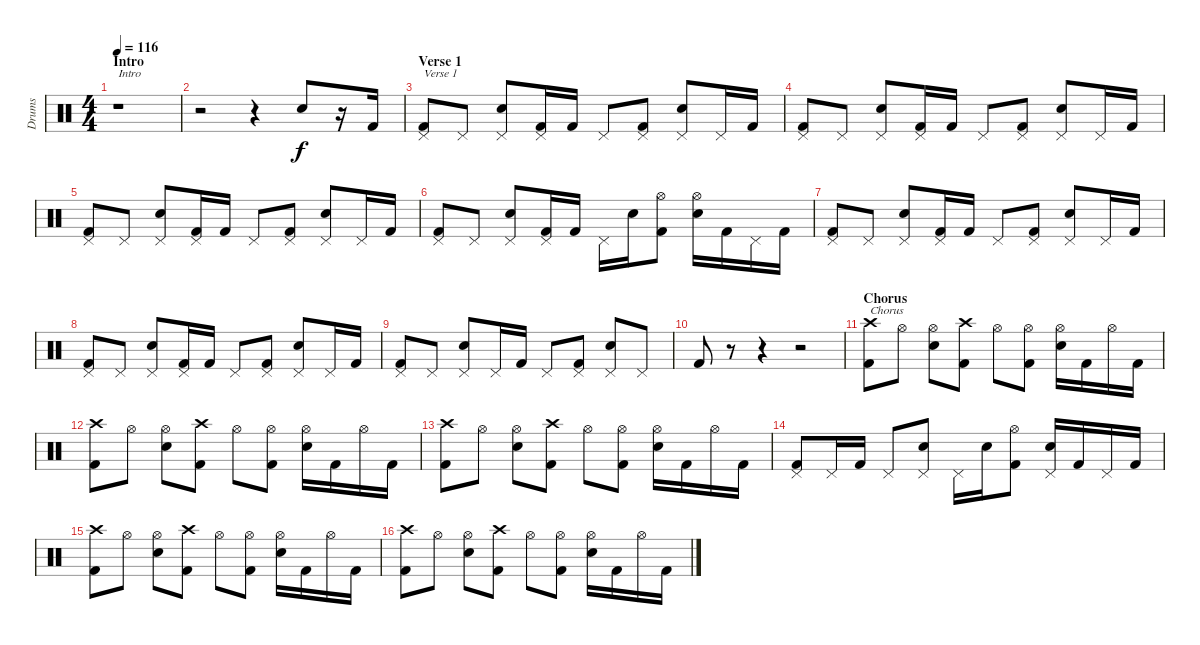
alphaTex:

\track ("Drums" "Drums") {instrument percussion}
\staff {score}
\articulation defaults
\ts (4 4)
\section ("" "Intro")
\tempo 116
\clef neutral
\ks c
r.1{txt "Intro" dy f} |
r.2 r.4 "Electric Snare (hit)".8 r.16 "Kick (hit) 2".16 |
\section ("" "Verse 1")
("Pedal Hi-Hat (hit)" "Kick (hit) 2").8{txt "Verse 1"} "Pedal Hi-Hat (hit)".8 ("Pedal Hi-Hat (hit)" "Electric Snare (hit)").8 ("Pedal Hi-Hat (hit)" "Kick (hit) 2").16 "Kick (hit) 2".16 "Pedal Hi-Hat (hit)".8 ("Pedal Hi-Hat (hit)" "Kick (hit) 2").8 ("Pedal Hi-Hat (hit)" "Electric Snare (hit)").8 "Pedal Hi-Hat (hit)".16 "Kick (hit) 2".16 |
("Pedal Hi-Hat (hit)" "Kick (hit) 2").8 "Pedal Hi-Hat (hit)".8 ("Pedal Hi-Hat (hit)" "Electric Snare (hit)").8 ("Pedal Hi-Hat (hit)" "Kick (hit) 2").16 "Kick (hit) 2".16 "Pedal Hi-Hat (hit)".8 ("Pedal Hi-Hat (hit)" "Kick (hit) 2").8 ("Pedal Hi-Hat (hit)" "Electric Snare (hit)").8 "Pedal Hi-Hat (hit)".16 "Kick (hit) 2".16 |
("Pedal Hi-Hat (hit)" "Kick (hit) 2").8 "Pedal Hi-Hat (hit)".8 ("Pedal Hi-Hat (hit)" "Electric Snare (hit)").8 ("Pedal Hi-Hat (hit)" "Kick (hit) 2").16 "Kick (hit) 2".16 "Pedal Hi-Hat (hit)".8 ("Pedal Hi-Hat (hit)" "Kick (hit) 2").8 ("Pedal Hi-Hat (hit)" "Electric Snare (hit)").8 "Pedal Hi-Hat (hit)".16 "Kick (hit) 2".16 |
("Pedal Hi-Hat (hit)" "Kick (hit) 2").8 "Pedal Hi-Hat (hit)".8 ("Pedal Hi-Hat (hit)" "Electric Snare (hit)").8 ("Pedal Hi-Hat (hit)" "Kick (hit) 2").16 "Kick (hit) 2".16 "Pedal Hi-Hat (hit)".16 "Electric Snare (hit)".16 ("Hi-Hat (open)" "Kick (hit) 2").8 ("Hi-Hat (open)" "Electric Snare (hit)").16 "Kick (hit) 2".16 "Pedal Hi-Hat (hit)".16 "Kick (hit) 2".16 |
("Pedal Hi-Hat (hit)" "Kick (hit) 2").8 "Pedal Hi-Hat (hit)".8 ("Pedal Hi-Hat (hit)" "Electric Snare (hit)").8 ("Pedal Hi-Hat (hit)" "Kick (hit) 2").16 "Kick (hit) 2".16 "Pedal Hi-Hat (hit)".8 ("Pedal Hi-Hat (hit)" "Kick (hit) 2").8 ("Pedal Hi-Hat (hit)" "Electric Snare (hit)").8 "Pedal Hi-Hat (hit)".16 "Kick (hit) 2".16 |
("Pedal Hi-Hat (hit)" "Kick (hit) 2").8 "Pedal Hi-Hat (hit)".8 ("Pedal Hi-Hat (hit)" "Electric Snare (hit)").8 ("Pedal Hi-Hat (hit)" "Kick (hit) 2").16 "Kick (hit) 2".16 "Pedal Hi-Hat (hit)".8 ("Pedal Hi-Hat (hit)" "Kick (hit) 2").8 ("Pedal Hi-Hat (hit)" "Electric Snare (hit)").8 "Pedal Hi-Hat (hit)".16 "Kick (hit) 2".16 |
("Pedal Hi-Hat (hit)" "Kick (hit) 2").8 "Pedal Hi-Hat (hit)".8 ("Pedal Hi-Hat (hit)" "Electric Snare (hit)").8 "Pedal Hi-Hat (hit)".16 "Kick (hit) 2".16 "Pedal Hi-Hat (hit)".8 ("Pedal Hi-Hat (hit)" "Kick (hit) 2").8 ("Pedal Hi-Hat (hit)" "Electric Snare (hit)").8 "Pedal Hi-Hat (hit)".8 |
"Kick (hit) 2".8 r.8 r.4 r.2 |
\section ("" "Chorus")
("Crash high (hit)" "Kick (hit) 2").8{txt "Chorus"} "Hi-Hat (open)".8 ("Hi-Hat (open)" "Electric Snare (hit)").8 ("Crash high (hit)" "Kick (hit) 2").8 "Hi-Hat (open)".8 ("Hi-Hat (open)" "Kick (hit) 2").8 ("Hi-Hat (open)" "Electric Snare (hit)").16 "Kick (hit) 2".16 "Hi-Hat (open)".16 "Kick (hit) 2".16 |
("Crash high (hit)" "Kick (hit) 2").8 "Hi-Hat (open)".8 ("Hi-Hat (open)" "Electric Snare (hit)").8 ("Crash high (hit)" "Kick (hit) 2").8 "Hi-Hat (open)".8 ("Hi-Hat (open)" "Kick (hit) 2").8 ("Hi-Hat (open)" "Electric Snare (hit)").16 "Kick (hit) 2".16 "Hi-Hat (open)".16 "Kick (hit) 2".16 |
("Crash high (hit)" "Kick (hit) 2").8 "Hi-Hat (open)".8 ("Hi-Hat (open)" "Electric Snare (hit)").8 ("Crash high (hit)" "Kick (hit) 2").8 "Hi-Hat (open)".8 ("Hi-Hat (open)" "Kick (hit) 2").8 ("Hi-Hat (open)" "Electric Snare (hit)").16 "Kick (hit) 2".16 "Hi-Hat (open)".16 "Kick (hit) 2".16 |
("Pedal Hi-Hat (hit)" "Kick (hit) 2").8 "Pedal Hi-Hat (hit)".16 "Kick (hit) 2".16 "Pedal Hi-Hat (hit)".8 ("Pedal Hi-Hat (hit)" "Electric Snare (hit)").8 "Pedal Hi-Hat (hit)".16 "Electric Snare (hit)".16 ("Hi-Hat (open)" "Kick (hit) 2").8 ("Pedal Hi-Hat (hit)" "Electric Snare (hit)").16 "Kick (hit) 2".16 "Pedal Hi-Hat (hit)".16 "Kick (hit) 2".16 |
("Crash high (hit)" "Kick (hit) 2").8 "Hi-Hat (open)".8 ("Hi-Hat (open)" "Electric Snare (hit)").8 ("Crash high (hit)" "Kick (hit) 2").8 "Hi-Hat (open)".8 ("Hi-Hat (open)" "Kick (hit) 2").8 ("Hi-Hat (open)" "Electric Snare (hit)").16 "Kick (hit) 2".16 "Hi-Hat (open)".16 "Kick (hit) 2".16 |
("Crash high (hit)" "Kick (hit) 2").8 "Hi-Hat (open)".8 ("Hi-Hat (open)" "Electric Snare (hit)").8 ("Crash high (hit)" "Kick (hit) 2").8 "Hi-Hat (open)".8 ("Hi-Hat (open)" "Kick (hit) 2").8 ("Hi-Hat (open)" "Electric Snare (hit)").16 "Kick (hit) 2".16 "Hi-Hat (open)".16 "Kick (hit) 2".16
